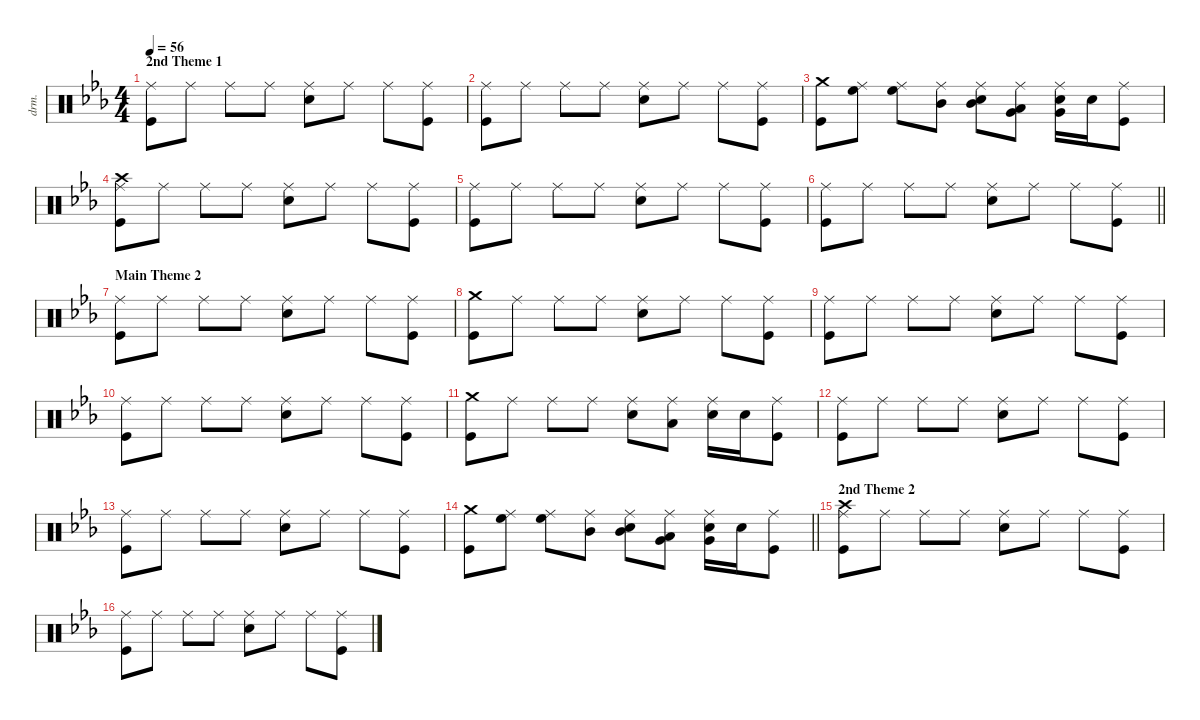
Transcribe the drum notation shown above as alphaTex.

\defaultSystemsLayout 4
\hideDynamics
\bracketExtendMode groupsimilarinstruments
\otherSystemsTrackNameOrientation horizontal
\track ("Percussion" "drm.") {defaultSystemsLayout 4 instrument percussion}
\staff {score}
\articulation defaults
\ts (4 4)
\section ("" "2nd Theme 1")
\tempo 56
\clef neutral
\ks cminor
("Ride (middle)"{acc forcenatural} "Kick (hit)"{acc forcenatural}).8{dy f} "Ride (middle)"{acc forcenatural}.8 "Ride (middle)"{acc forcenatural}.8 "Ride (middle)"{acc forcenatural}.8 ("Snare (hit) 2"{acc forcenatural} "Ride (middle)"{acc forcenatural}).8 "Ride (middle)"{acc forcenatural}.8 "Ride (middle)"{acc forcenatural}.8 ("Kick (hit)"{acc forcenatural} "Ride (middle)"{acc forcenatural}).8 |
("Ride (middle)"{acc forcenatural} "Kick (hit)"{acc forcenatural}).8 "Ride (middle)"{acc forcenatural}.8 "Ride (middle)"{acc forcenatural}.8 "Ride (middle)"{acc forcenatural}.8 ("Snare (hit) 2"{acc forcenatural} "Ride (middle)"{acc forcenatural}).8 "Ride (middle)"{acc forcenatural}.8 "Ride (middle)"{acc forcenatural}.8 ("Kick (hit)"{acc forcenatural} "Ride (middle)"{acc forcenatural}).8 |
("Crash medium (hit)"{acc forcenatural} "Kick (hit)"{acc forcenatural}).8 ("High Floor Tom (hit)"{acc forcenatural} "Ride (middle)"{acc forcenatural}).8 ("High Floor Tom (hit)"{acc forcenatural} "Ride (middle)"{acc forcenatural}).8 ("Mid Tom (hit)"{acc forcenatural} "Ride (middle)"{acc forcenatural}).8 ("Mid Tom (hit)"{acc forcenatural} "Snare (hit) 2"{acc forcenatural} "Ride (middle)"{acc forcenatural}).8 ("Very Low Tom (hit)"{acc forcenatural} "Low Floor Tom (hit)"{acc forcenatural} "Ride (middle)"{acc forcenatural}).8 ("Very Low Tom (hit)"{acc forcenatural} "Snare (hit) 2"{acc forcenatural} "Ride (middle)"{acc forcenatural}).16 "Snare (hit) 2"{acc forcenatural}.16 ("Kick (hit)"{acc forcenatural} "Ride (middle)"{acc forcenatural}).8 |
("Crash high (hit)"{acc forcenatural} "Kick (hit)"{acc forcenatural} "Ride (middle)"{acc forcenatural}).8 "Ride (middle)"{acc forcenatural}.8 "Ride (middle)"{acc forcenatural}.8 "Ride (middle)"{acc forcenatural}.8 ("Snare (hit) 2"{acc forcenatural} "Ride (middle)"{acc forcenatural}).8 "Ride (middle)"{acc forcenatural}.8 "Ride (middle)"{acc forcenatural}.8 ("Kick (hit)"{acc forcenatural} "Ride (middle)"{acc forcenatural}).8 |
("Ride (middle)"{acc forcenatural} "Kick (hit)"{acc forcenatural}).8 "Ride (middle)"{acc forcenatural}.8 "Ride (middle)"{acc forcenatural}.8 "Ride (middle)"{acc forcenatural}.8 ("Snare (hit) 2"{acc forcenatural} "Ride (middle)"{acc forcenatural}).8 "Ride (middle)"{acc forcenatural}.8 "Ride (middle)"{acc forcenatural}.8 ("Kick (hit)"{acc forcenatural} "Ride (middle)"{acc forcenatural}).8 |
\barLineRight lightlight
("Ride (middle)"{acc forcenatural} "Kick (hit)"{acc forcenatural}).8 "Ride (middle)"{acc forcenatural}.8 "Ride (middle)"{acc forcenatural}.8 "Ride (middle)"{acc forcenatural}.8 ("Snare (hit) 2"{acc forcenatural} "Ride (middle)"{acc forcenatural}).8 "Ride (middle)"{acc forcenatural}.8 "Ride (middle)"{acc forcenatural}.8 ("Kick (hit)"{acc forcenatural} "Ride (middle)"{acc forcenatural}).8 |
\section ("" "Main Theme 2")
("Ride (middle)"{acc forcenatural} "Kick (hit)"{acc forcenatural}).8 "Ride (middle)"{acc forcenatural}.8 "Ride (middle)"{acc forcenatural}.8 "Ride (middle)"{acc forcenatural}.8 ("Snare (hit) 2"{acc forcenatural} "Ride (middle)"{acc forcenatural}).8 "Ride (middle)"{acc forcenatural}.8 "Ride (middle)"{acc forcenatural}.8 ("Kick (hit)"{acc forcenatural} "Ride (middle)"{acc forcenatural}).8 |
("Crash medium (hit)"{acc forcenatural} "Kick (hit)"{acc forcenatural}).8 "Ride (middle)"{acc forcenatural}.8 "Ride (middle)"{acc forcenatural}.8 "Ride (middle)"{acc forcenatural}.8 ("Snare (hit) 2"{acc forcenatural} "Ride (middle)"{acc forcenatural}).8 "Ride (middle)"{acc forcenatural}.8 "Ride (middle)"{acc forcenatural}.8 ("Kick (hit)"{acc forcenatural} "Ride (middle)"{acc forcenatural}).8 |
("Ride (middle)"{acc forcenatural} "Kick (hit)"{acc forcenatural}).8 "Ride (middle)"{acc forcenatural}.8 "Ride (middle)"{acc forcenatural}.8 "Ride (middle)"{acc forcenatural}.8 ("Snare (hit) 2"{acc forcenatural} "Ride (middle)"{acc forcenatural}).8 "Ride (middle)"{acc forcenatural}.8 "Ride (middle)"{acc forcenatural}.8 ("Kick (hit)"{acc forcenatural} "Ride (middle)"{acc forcenatural}).8 |
("Ride (middle)"{acc forcenatural} "Kick (hit)"{acc forcenatural}).8 "Ride (middle)"{acc forcenatural}.8 "Ride (middle)"{acc forcenatural}.8 "Ride (middle)"{acc forcenatural}.8 ("Snare (hit) 2"{acc forcenatural} "Ride (middle)"{acc forcenatural}).8 "Ride (middle)"{acc forcenatural}.8 "Ride (middle)"{acc forcenatural}.8 ("Kick (hit)"{acc forcenatural} "Ride (middle)"{acc forcenatural}).8 |
("Crash medium (hit)"{acc forcenatural} "Kick (hit)"{acc forcenatural}).8 "Ride (middle)"{acc forcenatural}.8 "Ride (middle)"{acc forcenatural}.8 "Ride (middle)"{acc forcenatural}.8 ("Snare (hit) 2"{acc forcenatural} "Ride (middle)"{acc forcenatural}).8 ("Low Floor Tom (hit)"{acc forcenatural} "Ride (middle)"{acc forcenatural}).8 ("Snare (hit) 2"{acc forcenatural} "Ride (middle)"{acc forcenatural}).16 "Snare (hit) 2"{acc forcenatural}.16 ("Kick (hit)"{acc forcenatural} "Ride (middle)"{acc forcenatural}).8 |
("Ride (middle)"{acc forcenatural} "Kick (hit)"{acc forcenatural}).8 "Ride (middle)"{acc forcenatural}.8 "Ride (middle)"{acc forcenatural}.8 "Ride (middle)"{acc forcenatural}.8 ("Snare (hit) 2"{acc forcenatural} "Ride (middle)"{acc forcenatural}).8 "Ride (middle)"{acc forcenatural}.8 "Ride (middle)"{acc forcenatural}.8 ("Kick (hit)"{acc forcenatural} "Ride (middle)"{acc forcenatural}).8 |
("Ride (middle)"{acc forcenatural} "Kick (hit)"{acc forcenatural}).8 "Ride (middle)"{acc forcenatural}.8 "Ride (middle)"{acc forcenatural}.8 "Ride (middle)"{acc forcenatural}.8 ("Snare (hit) 2"{acc forcenatural} "Ride (middle)"{acc forcenatural}).8 "Ride (middle)"{acc forcenatural}.8 "Ride (middle)"{acc forcenatural}.8 ("Kick (hit)"{acc forcenatural} "Ride (middle)"{acc forcenatural}).8 |
\barLineRight lightlight
("Crash medium (hit)"{acc forcenatural} "Kick (hit)"{acc forcenatural}).8 ("High Floor Tom (hit)"{acc forcenatural} "Ride (middle)"{acc forcenatural}).8 ("High Floor Tom (hit)"{acc forcenatural} "Ride (middle)"{acc forcenatural}).8 ("Mid Tom (hit)"{acc forcenatural} "Ride (middle)"{acc forcenatural}).8 ("Mid Tom (hit)"{acc forcenatural} "Snare (hit) 2"{acc forcenatural} "Ride (middle)"{acc forcenatural}).8 ("Very Low Tom (hit)"{acc forcenatural} "Low Floor Tom (hit)"{acc forcenatural} "Ride (middle)"{acc forcenatural}).8 ("Very Low Tom (hit)"{acc forcenatural} "Snare (hit) 2"{acc forcenatural} "Ride (middle)"{acc forcenatural}).16 "Snare (hit) 2"{acc forcenatural}.16 ("Kick (hit)"{acc forcenatural} "Ride (middle)"{acc forcenatural}).8 |
\section ("" "2nd Theme 2")
("Crash high (hit)"{acc forcenatural} "Kick (hit)"{acc forcenatural} "Ride (middle)"{acc forcenatural}).8 "Ride (middle)"{acc forcenatural}.8 "Ride (middle)"{acc forcenatural}.8 "Ride (middle)"{acc forcenatural}.8 ("Snare (hit) 2"{acc forcenatural} "Ride (middle)"{acc forcenatural}).8 "Ride (middle)"{acc forcenatural}.8 "Ride (middle)"{acc forcenatural}.8 ("Kick (hit)"{acc forcenatural} "Ride (middle)"{acc forcenatural}).8 |
("Ride (middle)"{acc forcenatural} "Kick (hit)"{acc forcenatural}).8 "Ride (middle)"{acc forcenatural}.8 "Ride (middle)"{acc forcenatural}.8 "Ride (middle)"{acc forcenatural}.8 ("Snare (hit) 2"{acc forcenatural} "Ride (middle)"{acc forcenatural}).8 "Ride (middle)"{acc forcenatural}.8 "Ride (middle)"{acc forcenatural}.8 ("Kick (hit)"{acc forcenatural} "Ride (middle)"{acc forcenatural}).8
